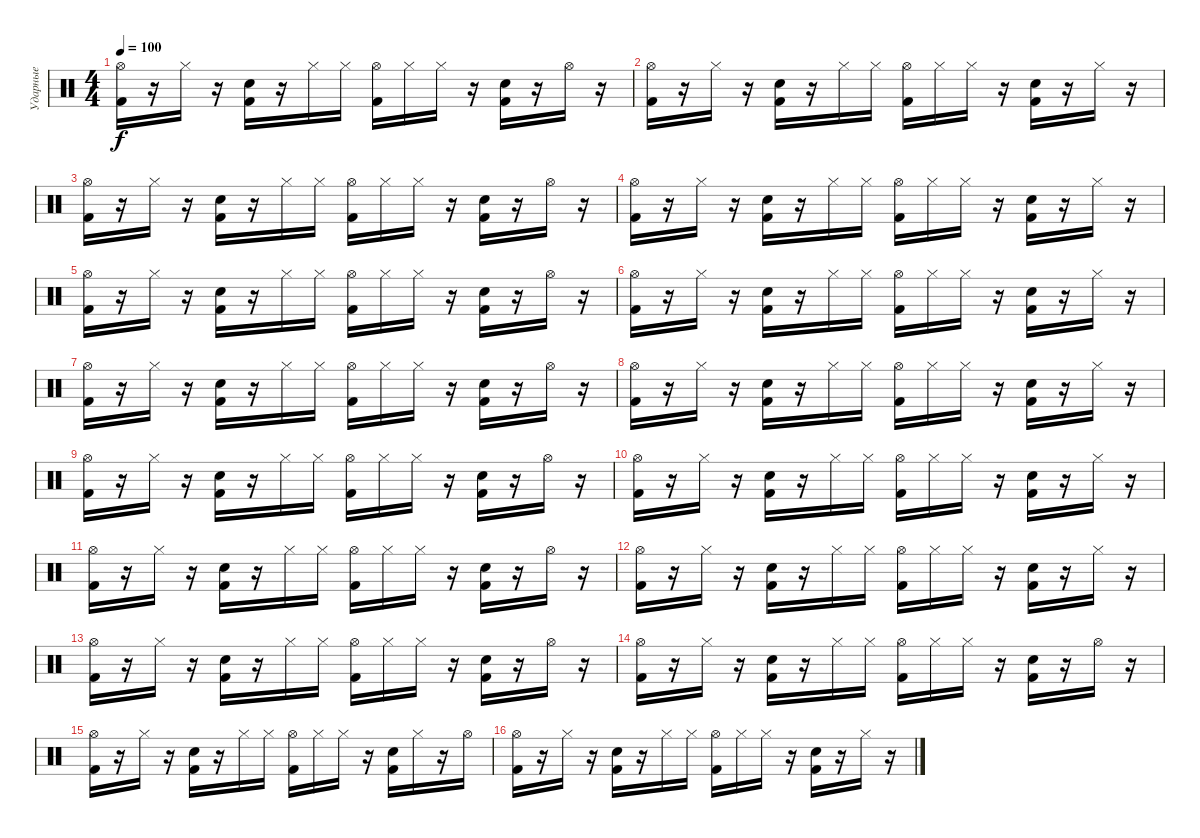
\track ("Ударные" "Ударные") {instrument percussion}
\staff {score}
\articulation defaults
\ts (4 4)
\tempo 100
\clef neutral
\ks c
("Hi-Hat (open)" "Kick (hit) 2").16{dy f} r.16 "Hi-Hat (closed)".16 r.16 ("Snare (hit) 2" "Kick (hit) 2").16 r.16 "Hi-Hat (closed)".16 "Hi-Hat (closed)".16 ("Hi-Hat (open)" "Kick (hit) 2").16 "Hi-Hat (closed)".16 "Hi-Hat (closed)".16 r.16 ("Snare (hit) 2" "Kick (hit) 2").16 r.16 "Hi-Hat (open)".16 r.16 |
("Hi-Hat (open)" "Kick (hit) 2").16 r.16 "Hi-Hat (closed)".16 r.16 ("Snare (hit) 2" "Kick (hit) 2").16 r.16 "Hi-Hat (closed)".16 "Hi-Hat (closed)".16 ("Hi-Hat (open)" "Kick (hit) 2").16 "Hi-Hat (closed)".16 "Hi-Hat (closed)".16 r.16 ("Snare (hit) 2" "Kick (hit) 2").16 r.16 "Hi-Hat (closed)".16 r.16 |
("Hi-Hat (open)" "Kick (hit) 2").16 r.16 "Hi-Hat (closed)".16 r.16 ("Snare (hit) 2" "Kick (hit) 2").16 r.16 "Hi-Hat (closed)".16 "Hi-Hat (closed)".16 ("Hi-Hat (open)" "Kick (hit) 2").16 "Hi-Hat (closed)".16 "Hi-Hat (closed)".16 r.16 ("Snare (hit) 2" "Kick (hit) 2").16 r.16 "Hi-Hat (open)".16 r.16 |
("Hi-Hat (open)" "Kick (hit) 2").16 r.16 "Hi-Hat (closed)".16 r.16 ("Snare (hit) 2" "Kick (hit) 2").16 r.16 "Hi-Hat (closed)".16 "Hi-Hat (closed)".16 ("Hi-Hat (open)" "Kick (hit) 2").16 "Hi-Hat (closed)".16 "Hi-Hat (closed)".16 r.16 ("Snare (hit) 2" "Kick (hit) 2").16 r.16 "Hi-Hat (closed)".16 r.16 |
("Hi-Hat (open)" "Kick (hit) 2").16 r.16 "Hi-Hat (closed)".16 r.16 ("Snare (hit) 2" "Kick (hit) 2").16 r.16 "Hi-Hat (closed)".16 "Hi-Hat (closed)".16 ("Hi-Hat (open)" "Kick (hit) 2").16 "Hi-Hat (closed)".16 "Hi-Hat (closed)".16 r.16 ("Snare (hit) 2" "Kick (hit) 2").16 r.16 "Hi-Hat (open)".16 r.16 |
("Hi-Hat (open)" "Kick (hit) 2").16 r.16 "Hi-Hat (closed)".16 r.16 ("Snare (hit) 2" "Kick (hit) 2").16 r.16 "Hi-Hat (closed)".16 "Hi-Hat (closed)".16 ("Hi-Hat (open)" "Kick (hit) 2").16 "Hi-Hat (closed)".16 "Hi-Hat (closed)".16 r.16 ("Snare (hit) 2" "Kick (hit) 2").16 r.16 "Hi-Hat (closed)".16 r.16 |
("Hi-Hat (open)" "Kick (hit) 2").16 r.16 "Hi-Hat (closed)".16 r.16 ("Snare (hit) 2" "Kick (hit) 2").16 r.16 "Hi-Hat (closed)".16 "Hi-Hat (closed)".16 ("Hi-Hat (open)" "Kick (hit) 2").16 "Hi-Hat (closed)".16 "Hi-Hat (closed)".16 r.16 ("Snare (hit) 2" "Kick (hit) 2").16 r.16 "Hi-Hat (open)".16 r.16 |
("Hi-Hat (open)" "Kick (hit) 2").16 r.16 "Hi-Hat (closed)".16 r.16 ("Snare (hit) 2" "Kick (hit) 2").16 r.16 "Hi-Hat (closed)".16 "Hi-Hat (closed)".16 ("Hi-Hat (open)" "Kick (hit) 2").16 "Hi-Hat (closed)".16 "Hi-Hat (closed)".16 r.16 ("Snare (hit) 2" "Kick (hit) 2").16 r.16 "Hi-Hat (closed)".16 r.16 |
("Hi-Hat (open)" "Kick (hit) 2").16 r.16 "Hi-Hat (closed)".16 r.16 ("Snare (hit) 2" "Kick (hit) 2").16 r.16 "Hi-Hat (closed)".16 "Hi-Hat (closed)".16 ("Hi-Hat (open)" "Kick (hit) 2").16 "Hi-Hat (closed)".16 "Hi-Hat (closed)".16 r.16 ("Snare (hit) 2" "Kick (hit) 2").16 r.16 "Hi-Hat (open)".16 r.16 |
("Hi-Hat (open)" "Kick (hit) 2").16 r.16 "Hi-Hat (closed)".16 r.16 ("Snare (hit) 2" "Kick (hit) 2").16 r.16 "Hi-Hat (closed)".16 "Hi-Hat (closed)".16 ("Hi-Hat (open)" "Kick (hit) 2").16 "Hi-Hat (closed)".16 "Hi-Hat (closed)".16 r.16 ("Snare (hit) 2" "Kick (hit) 2").16 r.16 "Hi-Hat (closed)".16 r.16 |
("Hi-Hat (open)" "Kick (hit) 2").16 r.16 "Hi-Hat (closed)".16 r.16 ("Snare (hit) 2" "Kick (hit) 2").16 r.16 "Hi-Hat (closed)".16 "Hi-Hat (closed)".16 ("Hi-Hat (open)" "Kick (hit) 2").16 "Hi-Hat (closed)".16 "Hi-Hat (closed)".16 r.16 ("Snare (hit) 2" "Kick (hit) 2").16 r.16 "Hi-Hat (open)".16 r.16 |
("Hi-Hat (open)" "Kick (hit) 2").16 r.16 "Hi-Hat (closed)".16 r.16 ("Snare (hit) 2" "Kick (hit) 2").16 r.16 "Hi-Hat (closed)".16 "Hi-Hat (closed)".16 ("Hi-Hat (open)" "Kick (hit) 2").16 "Hi-Hat (closed)".16 "Hi-Hat (closed)".16 r.16 ("Snare (hit) 2" "Kick (hit) 2").16 r.16 "Hi-Hat (closed)".16 r.16 |
("Hi-Hat (open)" "Kick (hit) 2").16 r.16 "Hi-Hat (closed)".16 r.16 ("Snare (hit) 2" "Kick (hit) 2").16 r.16 "Hi-Hat (closed)".16 "Hi-Hat (closed)".16 ("Hi-Hat (open)" "Kick (hit) 2").16 "Hi-Hat (closed)".16 "Hi-Hat (closed)".16 r.16 ("Snare (hit) 2" "Kick (hit) 2").16 r.16 "Hi-Hat (open)".16 r.16 |
("Hi-Hat (open)" "Kick (hit) 2").16 r.16 "Hi-Hat (closed)".16 r.16 ("Snare (hit) 2" "Kick (hit) 2").16 r.16 "Hi-Hat (closed)".16 "Hi-Hat (closed)".16 ("Hi-Hat (open)" "Kick (hit) 2").16 "Hi-Hat (closed)".16 "Hi-Hat (closed)".16 r.16 ("Snare (hit) 2" "Kick (hit) 2").16 r.16 "Hi-Hat (open)".16 r.16 |
("Hi-Hat (open)" "Kick (hit) 2").16 r.16 "Hi-Hat (closed)".16 r.16 ("Snare (hit) 2" "Kick (hit) 2").16 r.16 "Hi-Hat (closed)".16 "Hi-Hat (closed)".16 ("Hi-Hat (open)" "Kick (hit) 2").16 "Hi-Hat (closed)".16 "Hi-Hat (closed)".16 r.16 ("Snare (hit) 2" "Kick (hit) 2").16 "Hi-Hat (closed)".16 r.16 "Hi-Hat (open)".16 |
("Hi-Hat (open)" "Kick (hit) 2").16 r.16 "Hi-Hat (closed)".16 r.16 ("Snare (hit) 2" "Kick (hit) 2").16 r.16 "Hi-Hat (closed)".16 "Hi-Hat (closed)".16 ("Hi-Hat (open)" "Kick (hit) 2").16 "Hi-Hat (closed)".16 "Hi-Hat (closed)".16 r.16 ("Snare (hit) 2" "Kick (hit) 2").16 r.16 "Hi-Hat (closed)".16 r.16
